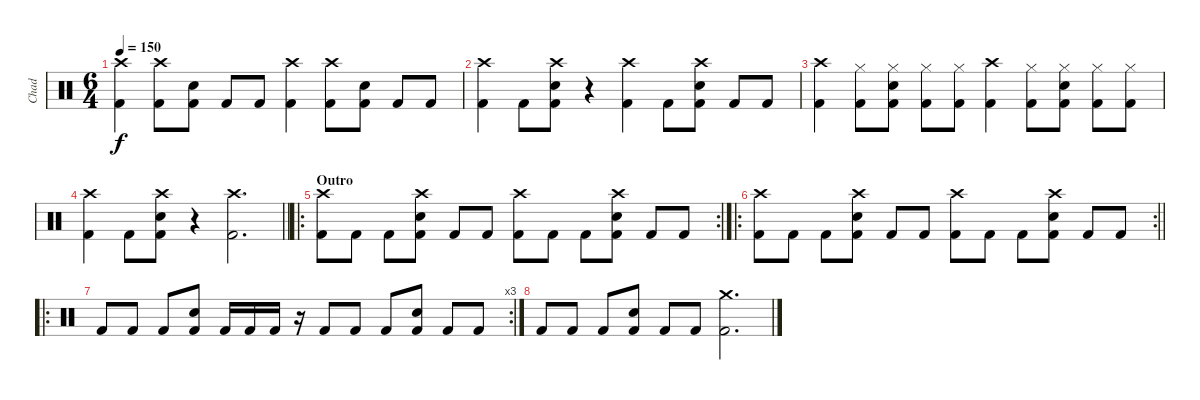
\track ("Chad" "Chad") {instrument percussion}
\staff {score}
\articulation defaults
\ts (6 4)
\tempo 150
\clef neutral
\ks c
("Crash high (hit)" "Kick (hit) 2").4{dy f} ("Crash high (hit)" "Kick (hit) 2").8 ("Electric Snare (hit)" "Kick (hit) 2").8 "Kick (hit) 2".8 "Kick (hit) 2".8 ("Crash high (hit)" "Kick (hit) 2").4 ("Crash high (hit)" "Kick (hit) 2").8 ("Electric Snare (hit)" "Kick (hit) 2").8 "Kick (hit) 2".8 "Kick (hit) 2".8 |
("Crash high (hit)" "Kick (hit) 2").4 "Kick (hit) 2".8 ("Crash high (hit)" "Electric Snare (hit)" "Kick (hit) 2").8 r.4 ("Crash high (hit)" "Kick (hit) 2").4 "Kick (hit) 2".8 ("Crash high (hit)" "Electric Snare (hit)" "Kick (hit) 2").8 "Kick (hit) 2".8 "Kick (hit) 2".8 |
("Crash high (hit)" "Kick (hit) 2").4 ("Hi-Hat (closed)" "Kick (hit) 2").8 ("Hi-Hat (closed)" "Electric Snare (hit)" "Kick (hit) 2").8 ("Hi-Hat (closed)" "Kick (hit) 2").8 ("Hi-Hat (closed)" "Kick (hit) 2").8 ("Crash high (hit)" "Kick (hit) 2").4 ("Hi-Hat (closed)" "Kick (hit) 2").8 ("Hi-Hat (closed)" "Electric Snare (hit)" "Kick (hit) 2").8 ("Hi-Hat (closed)" "Kick (hit) 2").8 ("Hi-Hat (closed)" "Kick (hit) 2").8 |
\barLineRight lightlight
("Crash high (hit)" "Kick (hit) 2").4 "Kick (hit) 2".8 ("Crash high (hit)" "Electric Snare (hit)" "Kick (hit) 2").8 r.4 ("Crash high (hit)" "Kick (hit) 2").2{d} |
\ro
\rc 2
\section ("" "Outro")
("Crash high (hit)" "Kick (hit) 2").8 "Kick (hit) 2".8 "Kick (hit) 2".8 ("Crash high (hit)" "Electric Snare (hit)" "Kick (hit) 2").8 "Kick (hit) 2".8 "Kick (hit) 2".8 ("Crash high (hit)" "Kick (hit) 2").8 "Kick (hit) 2".8 "Kick (hit) 2".8 ("Crash high (hit)" "Electric Snare (hit)" "Kick (hit) 2").8 "Kick (hit) 2".8 "Kick (hit) 2".8 |
\ro
\rc 2
\barLineRight lightlight
("Crash high (hit)" "Kick (hit) 2").8 "Kick (hit) 2".8 "Kick (hit) 2".8 ("Crash high (hit)" "Electric Snare (hit)" "Kick (hit) 2").8 "Kick (hit) 2".8 "Kick (hit) 2".8 ("Crash high (hit)" "Kick (hit) 2").8 "Kick (hit) 2".8 "Kick (hit) 2".8 ("Crash high (hit)" "Electric Snare (hit)" "Kick (hit) 2").8 "Kick (hit) 2".8 "Kick (hit) 2".8 |
\ro
\rc 3 "Kick (hit) 2".8 "Kick (hit) 2".8 "Kick (hit) 2".8
("Electric Snare (hit)" "Kick (hit) 2").8 "Kick (hit) 2".16 "Kick (hit) 2".16 "Kick (hit) 2".16 r.16 "Kick (hit) 2".8 "Kick (hit) 2".8 "Kick (hit) 2".8 ("Electric Snare (hit)" "Kick (hit) 2").8 "Kick (hit) 2".8 "Kick (hit) 2".8 |
"Kick (hit) 2".8 "Kick (hit) 2".8 "Kick (hit) 2".8 ("Electric Snare (hit)" "Kick (hit) 2").8 "Kick (hit) 2".8 "Kick (hit) 2".8 ("Crash medium (hit)" "Kick (hit) 2").2{d}
